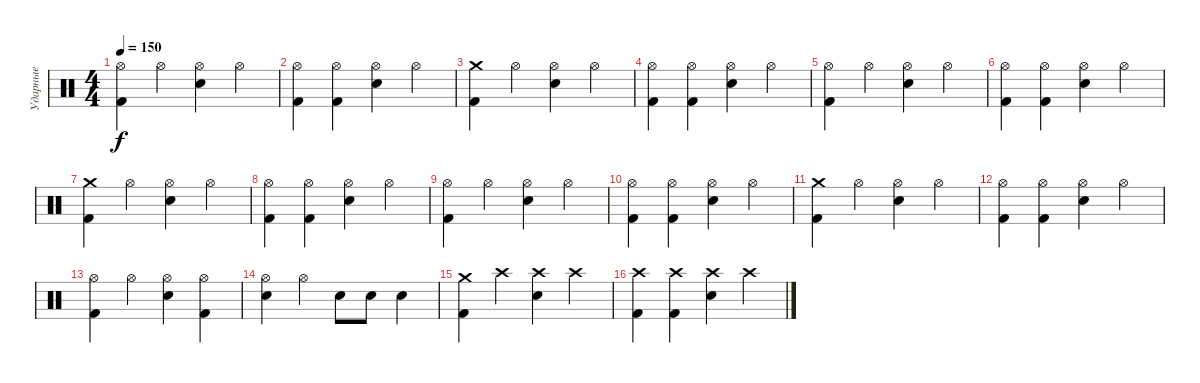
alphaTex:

\track ("Ударные" "Ударные") {instrument percussion}
\staff {score}
\articulation defaults
\ts (4 4)
\tempo 150
\clef neutral
\ks c
("Hi-Hat (open)" "Kick (hit) 2").4{dy f} "Hi-Hat (open)".4 ("Hi-Hat (open)" "Electric Snare (hit)").4 "Hi-Hat (open)".4 |
("Hi-Hat (open)" "Kick (hit) 2").4 ("Hi-Hat (open)" "Kick (hit) 2").4 ("Hi-Hat (open)" "Electric Snare (hit)").4 "Hi-Hat (open)".4 |
("Crash medium (hit)" "Kick (hit) 2").4 "Hi-Hat (open)".4 ("Hi-Hat (open)" "Electric Snare (hit)").4 "Hi-Hat (open)".4 |
("Hi-Hat (open)" "Kick (hit) 2").4 ("Hi-Hat (open)" "Kick (hit) 2").4 ("Hi-Hat (open)" "Electric Snare (hit)").4 "Hi-Hat (open)".4 |
("Hi-Hat (open)" "Kick (hit) 2").4 "Hi-Hat (open)".4 ("Hi-Hat (open)" "Electric Snare (hit)").4 "Hi-Hat (open)".4 |
("Hi-Hat (open)" "Kick (hit) 2").4 ("Hi-Hat (open)" "Kick (hit) 2").4 ("Hi-Hat (open)" "Electric Snare (hit)").4 "Hi-Hat (open)".4 |
("Crash medium (hit)" "Kick (hit) 2").4 "Hi-Hat (open)".4 ("Hi-Hat (open)" "Electric Snare (hit)").4 "Hi-Hat (open)".4 |
("Hi-Hat (open)" "Kick (hit) 2").4 ("Hi-Hat (open)" "Kick (hit) 2").4 ("Hi-Hat (open)" "Electric Snare (hit)").4 "Hi-Hat (open)".4 |
("Hi-Hat (open)" "Kick (hit) 2").4 "Hi-Hat (open)".4 ("Hi-Hat (open)" "Electric Snare (hit)").4 "Hi-Hat (open)".4 |
("Hi-Hat (open)" "Kick (hit) 2").4 ("Hi-Hat (open)" "Kick (hit) 2").4 ("Hi-Hat (open)" "Electric Snare (hit)").4 "Hi-Hat (open)".4 |
("Crash medium (hit)" "Kick (hit) 2").4 "Hi-Hat (open)".4 ("Hi-Hat (open)" "Electric Snare (hit)").4 "Hi-Hat (open)".4 |
("Hi-Hat (open)" "Kick (hit) 2").4 ("Hi-Hat (open)" "Kick (hit) 2").4 ("Hi-Hat (open)" "Electric Snare (hit)").4 "Hi-Hat (open)".4 |
("Hi-Hat (open)" "Kick (hit) 2").4 "Hi-Hat (open)".4 ("Hi-Hat (open)" "Electric Snare (hit)").4 ("Hi-Hat (open)" "Kick (hit) 2").4 |
("Hi-Hat (open)" "Electric Snare (hit)").4 "Hi-Hat (open)".4 "Electric Snare (hit)".8 "Electric Snare (hit)".8 "Electric Snare (hit)".4 |
("Crash medium (hit)" "Kick (hit) 2").4 "Crash high (hit)".4 ("Crash high (hit)" "Electric Snare (hit)").4 "Crash high (hit)".4 |
("Crash high (hit)" "Kick (hit) 2").4 ("Crash high (hit)" "Kick (hit) 2").4 ("Crash high (hit)" "Electric Snare (hit)").4 "Crash high (hit)".4
